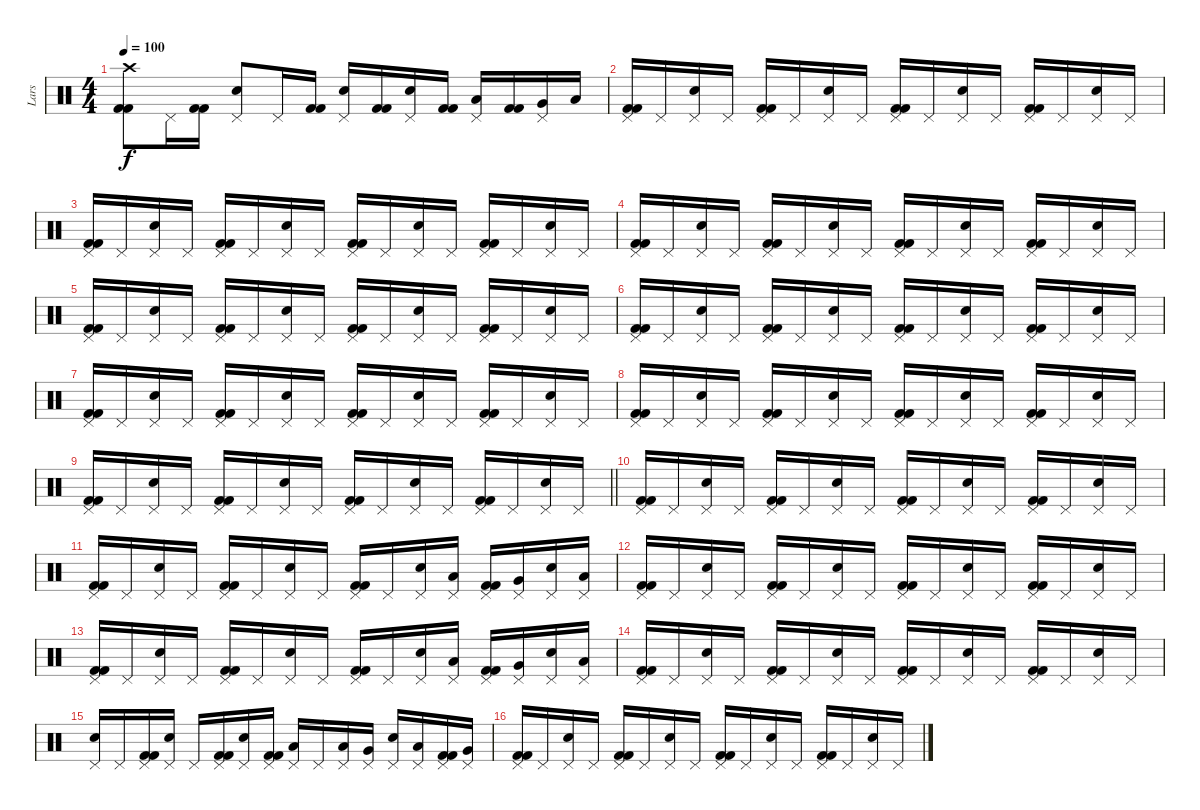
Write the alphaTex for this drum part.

\track ("Lars" "Lars") {instrument percussion}
\staff {score}
\articulation defaults
\ts (4 4)
\tempo 100
\clef neutral
\ks c
("Kick (hit) 2" "Kick (hit) 2" "Crash high (hit)").8{dy f} "Pedal Hi-Hat (hit)".16 ("Kick (hit) 2" "Kick (hit) 2").16 ("Electric Snare (hit)" "Pedal Hi-Hat (hit)").8 "Pedal Hi-Hat (hit)".16 ("Kick (hit) 2" "Kick (hit) 2").16 ("Electric Snare (hit)" "Pedal Hi-Hat (hit)").16 ("Kick (hit) 2" "Kick (hit) 2").16 ("Electric Snare (hit)" "Pedal Hi-Hat (hit)").16 ("Kick (hit) 2" "Kick (hit) 2").16 ("Low Floor Tom (hit)" "Pedal Hi-Hat (hit)").16 ("Kick (hit) 2" "Kick (hit) 2").16 ("Very Low Tom (hit)" "Pedal Hi-Hat (hit)").16 "Low Tom (hit)".16 |
("Kick (hit) 2" "Kick (hit) 2" "Pedal Hi-Hat (hit)").16 "Pedal Hi-Hat (hit)".16 ("Electric Snare (hit)" "Pedal Hi-Hat (hit)").16 "Pedal Hi-Hat (hit)".16 ("Kick (hit) 2" "Kick (hit) 2" "Pedal Hi-Hat (hit)").16 "Pedal Hi-Hat (hit)".16 ("Electric Snare (hit)" "Pedal Hi-Hat (hit)").16 "Pedal Hi-Hat (hit)".16 ("Kick (hit) 2" "Kick (hit) 2" "Pedal Hi-Hat (hit)").16 "Pedal Hi-Hat (hit)".16 ("Electric Snare (hit)" "Pedal Hi-Hat (hit)").16 "Pedal Hi-Hat (hit)".16 ("Kick (hit) 2" "Kick (hit) 2" "Pedal Hi-Hat (hit)").16 "Pedal Hi-Hat (hit)".16 ("Electric Snare (hit)" "Pedal Hi-Hat (hit)").16 "Pedal Hi-Hat (hit)".16 |
("Kick (hit) 2" "Kick (hit) 2" "Pedal Hi-Hat (hit)").16 "Pedal Hi-Hat (hit)".16 ("Electric Snare (hit)" "Pedal Hi-Hat (hit)").16 "Pedal Hi-Hat (hit)".16 ("Kick (hit) 2" "Kick (hit) 2" "Pedal Hi-Hat (hit)").16 "Pedal Hi-Hat (hit)".16 ("Electric Snare (hit)" "Pedal Hi-Hat (hit)").16 "Pedal Hi-Hat (hit)".16 ("Kick (hit) 2" "Kick (hit) 2" "Pedal Hi-Hat (hit)").16 "Pedal Hi-Hat (hit)".16 ("Electric Snare (hit)" "Pedal Hi-Hat (hit)").16 "Pedal Hi-Hat (hit)".16 ("Kick (hit) 2" "Kick (hit) 2" "Pedal Hi-Hat (hit)").16 "Pedal Hi-Hat (hit)".16 ("Electric Snare (hit)" "Pedal Hi-Hat (hit)").16 "Pedal Hi-Hat (hit)".16 |
("Kick (hit) 2" "Kick (hit) 2" "Pedal Hi-Hat (hit)").16 "Pedal Hi-Hat (hit)".16 ("Electric Snare (hit)" "Pedal Hi-Hat (hit)").16 "Pedal Hi-Hat (hit)".16 ("Kick (hit) 2" "Kick (hit) 2" "Pedal Hi-Hat (hit)").16 "Pedal Hi-Hat (hit)".16 ("Electric Snare (hit)" "Pedal Hi-Hat (hit)").16 "Pedal Hi-Hat (hit)".16 ("Kick (hit) 2" "Kick (hit) 2" "Pedal Hi-Hat (hit)").16 "Pedal Hi-Hat (hit)".16 ("Electric Snare (hit)" "Pedal Hi-Hat (hit)").16 "Pedal Hi-Hat (hit)".16 ("Kick (hit) 2" "Kick (hit) 2" "Pedal Hi-Hat (hit)").16 "Pedal Hi-Hat (hit)".16 ("Electric Snare (hit)" "Pedal Hi-Hat (hit)").16 "Pedal Hi-Hat (hit)".16 |
("Kick (hit) 2" "Kick (hit) 2" "Pedal Hi-Hat (hit)").16 "Pedal Hi-Hat (hit)".16 ("Electric Snare (hit)" "Pedal Hi-Hat (hit)").16 "Pedal Hi-Hat (hit)".16 ("Kick (hit) 2" "Kick (hit) 2" "Pedal Hi-Hat (hit)").16 "Pedal Hi-Hat (hit)".16 ("Electric Snare (hit)" "Pedal Hi-Hat (hit)").16 "Pedal Hi-Hat (hit)".16 ("Kick (hit) 2" "Kick (hit) 2" "Pedal Hi-Hat (hit)").16 "Pedal Hi-Hat (hit)".16 ("Electric Snare (hit)" "Pedal Hi-Hat (hit)").16 "Pedal Hi-Hat (hit)".16 ("Kick (hit) 2" "Kick (hit) 2" "Pedal Hi-Hat (hit)").16 "Pedal Hi-Hat (hit)".16 ("Electric Snare (hit)" "Pedal Hi-Hat (hit)").16 "Pedal Hi-Hat (hit)".16 |
("Kick (hit) 2" "Kick (hit) 2" "Pedal Hi-Hat (hit)").16 "Pedal Hi-Hat (hit)".16 ("Electric Snare (hit)" "Pedal Hi-Hat (hit)").16 "Pedal Hi-Hat (hit)".16 ("Kick (hit) 2" "Kick (hit) 2" "Pedal Hi-Hat (hit)").16 "Pedal Hi-Hat (hit)".16 ("Electric Snare (hit)" "Pedal Hi-Hat (hit)").16 "Pedal Hi-Hat (hit)".16 ("Kick (hit) 2" "Kick (hit) 2" "Pedal Hi-Hat (hit)").16 "Pedal Hi-Hat (hit)".16 ("Electric Snare (hit)" "Pedal Hi-Hat (hit)").16 "Pedal Hi-Hat (hit)".16 ("Kick (hit) 2" "Kick (hit) 2" "Pedal Hi-Hat (hit)").16 "Pedal Hi-Hat (hit)".16 ("Electric Snare (hit)" "Pedal Hi-Hat (hit)").16 "Pedal Hi-Hat (hit)".16 |
("Kick (hit) 2" "Kick (hit) 2" "Pedal Hi-Hat (hit)").16 "Pedal Hi-Hat (hit)".16 ("Electric Snare (hit)" "Pedal Hi-Hat (hit)").16 "Pedal Hi-Hat (hit)".16 ("Kick (hit) 2" "Kick (hit) 2" "Pedal Hi-Hat (hit)").16 "Pedal Hi-Hat (hit)".16 ("Electric Snare (hit)" "Pedal Hi-Hat (hit)").16 "Pedal Hi-Hat (hit)".16 ("Kick (hit) 2" "Kick (hit) 2" "Pedal Hi-Hat (hit)").16 "Pedal Hi-Hat (hit)".16 ("Electric Snare (hit)" "Pedal Hi-Hat (hit)").16 "Pedal Hi-Hat (hit)".16 ("Kick (hit) 2" "Kick (hit) 2" "Pedal Hi-Hat (hit)").16 "Pedal Hi-Hat (hit)".16 ("Electric Snare (hit)" "Pedal Hi-Hat (hit)").16 "Pedal Hi-Hat (hit)".16 |
("Kick (hit) 2" "Kick (hit) 2" "Pedal Hi-Hat (hit)").16 "Pedal Hi-Hat (hit)".16 ("Electric Snare (hit)" "Pedal Hi-Hat (hit)").16 "Pedal Hi-Hat (hit)".16 ("Kick (hit) 2" "Kick (hit) 2" "Pedal Hi-Hat (hit)").16 "Pedal Hi-Hat (hit)".16 ("Electric Snare (hit)" "Pedal Hi-Hat (hit)").16 "Pedal Hi-Hat (hit)".16 ("Kick (hit) 2" "Kick (hit) 2" "Pedal Hi-Hat (hit)").16 "Pedal Hi-Hat (hit)".16 ("Electric Snare (hit)" "Pedal Hi-Hat (hit)").16 "Pedal Hi-Hat (hit)".16 ("Kick (hit) 2" "Kick (hit) 2" "Pedal Hi-Hat (hit)").16 "Pedal Hi-Hat (hit)".16 ("Electric Snare (hit)" "Pedal Hi-Hat (hit)").16 "Pedal Hi-Hat (hit)".16 |
\barLineRight lightlight
("Kick (hit) 2" "Kick (hit) 2" "Pedal Hi-Hat (hit)").16 "Pedal Hi-Hat (hit)".16 ("Electric Snare (hit)" "Pedal Hi-Hat (hit)").16 "Pedal Hi-Hat (hit)".16 ("Kick (hit) 2" "Kick (hit) 2" "Pedal Hi-Hat (hit)").16 "Pedal Hi-Hat (hit)".16 ("Electric Snare (hit)" "Pedal Hi-Hat (hit)").16 "Pedal Hi-Hat (hit)".16 ("Kick (hit) 2" "Kick (hit) 2" "Pedal Hi-Hat (hit)").16 "Pedal Hi-Hat (hit)".16 ("Electric Snare (hit)" "Pedal Hi-Hat (hit)").16 "Pedal Hi-Hat (hit)".16 ("Kick (hit) 2" "Kick (hit) 2" "Pedal Hi-Hat (hit)").16 "Pedal Hi-Hat (hit)".16 ("Electric Snare (hit)" "Pedal Hi-Hat (hit)").16 "Pedal Hi-Hat (hit)".16 |
\section ("" "")
("Kick (hit) 2" "Kick (hit) 2" "Pedal Hi-Hat (hit)").16 "Pedal Hi-Hat (hit)".16 ("Electric Snare (hit)" "Pedal Hi-Hat (hit)").16 "Pedal Hi-Hat (hit)".16 ("Kick (hit) 2" "Kick (hit) 2" "Pedal Hi-Hat (hit)").16 "Pedal Hi-Hat (hit)".16 ("Electric Snare (hit)" "Pedal Hi-Hat (hit)").16 "Pedal Hi-Hat (hit)".16 ("Kick (hit) 2" "Kick (hit) 2" "Pedal Hi-Hat (hit)").16 "Pedal Hi-Hat (hit)".16 ("Electric Snare (hit)" "Pedal Hi-Hat (hit)").16 "Pedal Hi-Hat (hit)".16 ("Kick (hit) 2" "Kick (hit) 2" "Pedal Hi-Hat (hit)").16 "Pedal Hi-Hat (hit)".16 ("Electric Snare (hit)" "Pedal Hi-Hat (hit)").16 "Pedal Hi-Hat (hit)".16 |
("Kick (hit) 2" "Kick (hit) 2" "Pedal Hi-Hat (hit)").16 "Pedal Hi-Hat (hit)".16 ("Electric Snare (hit)" "Pedal Hi-Hat (hit)").16 "Pedal Hi-Hat (hit)".16 ("Kick (hit) 2" "Kick (hit) 2" "Pedal Hi-Hat (hit)").16 "Pedal Hi-Hat (hit)".16 ("Electric Snare (hit)" "Pedal Hi-Hat (hit)").16 "Pedal Hi-Hat (hit)".16 ("Kick (hit) 2" "Kick (hit) 2" "Pedal Hi-Hat (hit)").16 "Pedal Hi-Hat (hit)".16 ("Electric Snare (hit)" "Pedal Hi-Hat (hit)").16 ("Low Tom (hit)" "Pedal Hi-Hat (hit)").16 ("Kick (hit) 2" "Kick (hit) 2" "Pedal Hi-Hat (hit)").16 ("Very Low Tom (hit)" "Pedal Hi-Hat (hit)").16 ("Electric Snare (hit)" "Pedal Hi-Hat (hit)").16 ("Low Floor Tom (hit)" "Pedal Hi-Hat (hit)").16 |
("Kick (hit) 2" "Kick (hit) 2" "Pedal Hi-Hat (hit)").16 "Pedal Hi-Hat (hit)".16 ("Electric Snare (hit)" "Pedal Hi-Hat (hit)").16 "Pedal Hi-Hat (hit)".16 ("Kick (hit) 2" "Kick (hit) 2" "Pedal Hi-Hat (hit)").16 "Pedal Hi-Hat (hit)".16 ("Electric Snare (hit)" "Pedal Hi-Hat (hit)").16 "Pedal Hi-Hat (hit)".16 ("Kick (hit) 2" "Kick (hit) 2" "Pedal Hi-Hat (hit)").16 "Pedal Hi-Hat (hit)".16 ("Electric Snare (hit)" "Pedal Hi-Hat (hit)").16 "Pedal Hi-Hat (hit)".16 ("Kick (hit) 2" "Kick (hit) 2" "Pedal Hi-Hat (hit)").16 "Pedal Hi-Hat (hit)".16 ("Electric Snare (hit)" "Pedal Hi-Hat (hit)").16 "Pedal Hi-Hat (hit)".16 |
("Kick (hit) 2" "Kick (hit) 2" "Pedal Hi-Hat (hit)").16 "Pedal Hi-Hat (hit)".16 ("Electric Snare (hit)" "Pedal Hi-Hat (hit)").16 "Pedal Hi-Hat (hit)".16 ("Kick (hit) 2" "Kick (hit) 2" "Pedal Hi-Hat (hit)").16 "Pedal Hi-Hat (hit)".16 ("Electric Snare (hit)" "Pedal Hi-Hat (hit)").16 "Pedal Hi-Hat (hit)".16 ("Kick (hit) 2" "Kick (hit) 2" "Pedal Hi-Hat (hit)").16 "Pedal Hi-Hat (hit)".16 ("Electric Snare (hit)" "Pedal Hi-Hat (hit)").16 ("Low Tom (hit)" "Pedal Hi-Hat (hit)").16 ("Kick (hit) 2" "Kick (hit) 2" "Pedal Hi-Hat (hit)").16 ("Very Low Tom (hit)" "Pedal Hi-Hat (hit)").16 ("Electric Snare (hit)" "Pedal Hi-Hat (hit)").16 ("Low Floor Tom (hit)" "Pedal Hi-Hat (hit)").16 |
("Kick (hit) 2" "Kick (hit) 2" "Pedal Hi-Hat (hit)").16 "Pedal Hi-Hat (hit)".16 ("Electric Snare (hit)" "Pedal Hi-Hat (hit)").16 "Pedal Hi-Hat (hit)".16 ("Kick (hit) 2" "Kick (hit) 2" "Pedal Hi-Hat (hit)").16 "Pedal Hi-Hat (hit)".16 ("Electric Snare (hit)" "Pedal Hi-Hat (hit)").16 "Pedal Hi-Hat (hit)".16 ("Kick (hit) 2" "Kick (hit) 2" "Pedal Hi-Hat (hit)").16 "Pedal Hi-Hat (hit)".16 ("Electric Snare (hit)" "Pedal Hi-Hat (hit)").16 "Pedal Hi-Hat (hit)".16 ("Kick (hit) 2" "Kick (hit) 2" "Pedal Hi-Hat (hit)").16 "Pedal Hi-Hat (hit)".16 ("Electric Snare (hit)" "Pedal Hi-Hat (hit)").16 "Pedal Hi-Hat (hit)".16 |
("Electric Snare (hit)" "Pedal Hi-Hat (hit)").16 "Pedal Hi-Hat (hit)".16 ("Kick (hit) 2" "Kick (hit) 2" "Pedal Hi-Hat (hit)").16 ("Electric Snare (hit)" "Pedal Hi-Hat (hit)").16 "Pedal Hi-Hat (hit)".16 ("Kick (hit) 2" "Kick (hit) 2" "Pedal Hi-Hat (hit)").16 ("Electric Snare (hit)" "Pedal Hi-Hat (hit)").16 ("Kick (hit) 2" "Kick (hit) 2" "Pedal Hi-Hat (hit)").16 ("Low Tom (hit)" "Pedal Hi-Hat (hit)").16 "Pedal Hi-Hat (hit)".16 ("Low Tom (hit)" "Pedal Hi-Hat (hit)").16 ("Very Low Tom (hit)" "Pedal Hi-Hat (hit)").16 ("Electric Snare (hit)" "Pedal Hi-Hat (hit)").16 ("Low Floor Tom (hit)" "Pedal Hi-Hat (hit)").16 ("Kick (hit) 2" "Kick (hit) 2" "Pedal Hi-Hat (hit)").16 ("Very Low Tom (hit)" "Pedal Hi-Hat (hit)").16 |
("Kick (hit) 2" "Kick (hit) 2" "Pedal Hi-Hat (hit)").16 "Pedal Hi-Hat (hit)".16 ("Electric Snare (hit)" "Pedal Hi-Hat (hit)").16 "Pedal Hi-Hat (hit)".16 ("Kick (hit) 2" "Kick (hit) 2" "Pedal Hi-Hat (hit)").16 "Pedal Hi-Hat (hit)".16 ("Electric Snare (hit)" "Pedal Hi-Hat (hit)").16 "Pedal Hi-Hat (hit)".16 ("Kick (hit) 2" "Kick (hit) 2" "Pedal Hi-Hat (hit)").16 "Pedal Hi-Hat (hit)".16 ("Electric Snare (hit)" "Pedal Hi-Hat (hit)").16 "Pedal Hi-Hat (hit)".16 ("Kick (hit) 2" "Kick (hit) 2" "Pedal Hi-Hat (hit)").16 "Pedal Hi-Hat (hit)".16 ("Electric Snare (hit)" "Pedal Hi-Hat (hit)").16 "Pedal Hi-Hat (hit)".16
